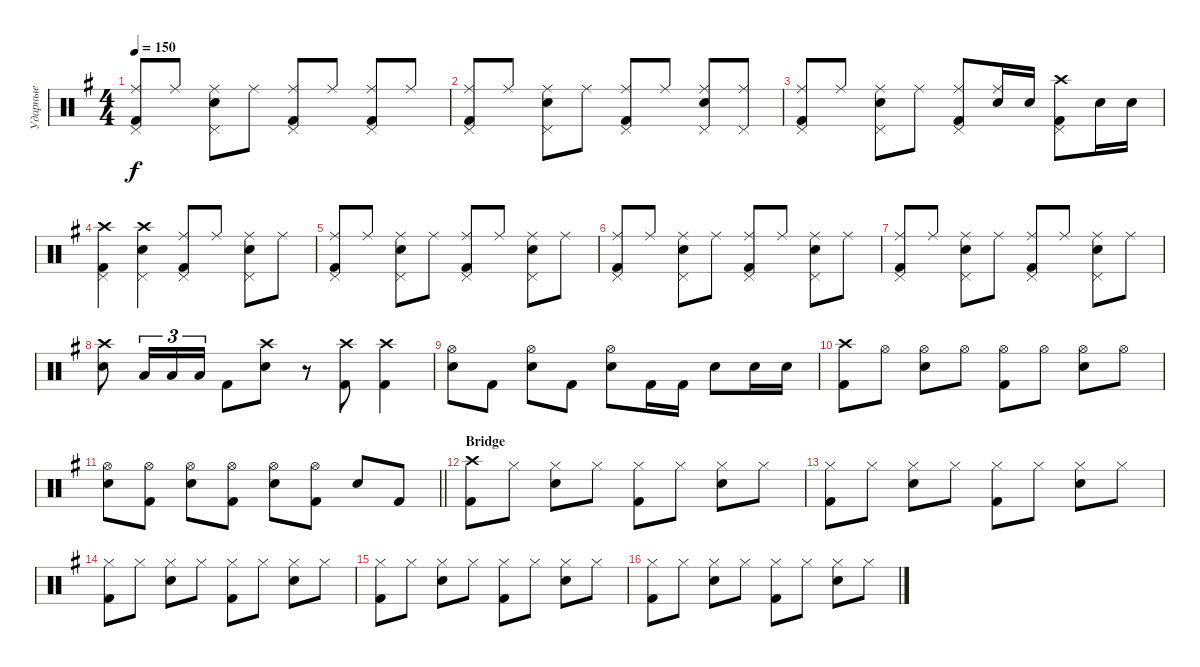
\track ("Ударные" "Ударные") {instrument percussion}
\staff {score}
\articulation defaults
\ts (4 4)
\tempo 150
\clef neutral
\ks eminor
("Ride (middle)" "Kick (hit) 2" "Pedal Hi-Hat (hit)").8{dy f} "Ride (middle)".8 ("Ride (middle)" "Snare (hit) 2" "Pedal Hi-Hat (hit)").8 "Ride (middle)".8 ("Ride (middle)" "Kick (hit) 2" "Pedal Hi-Hat (hit)").8 "Ride (middle)".8 ("Ride (middle)" "Kick (hit) 2" "Pedal Hi-Hat (hit)").8 "Ride (middle)".8 |
("Ride (middle)" "Kick (hit) 2" "Pedal Hi-Hat (hit)").8 "Ride (middle)".8 ("Ride (middle)" "Snare (hit) 2" "Pedal Hi-Hat (hit)").8 "Ride (middle)".8 ("Ride (middle)" "Kick (hit) 2" "Pedal Hi-Hat (hit)").8 "Ride (middle)".8 ("Ride (middle)" "Snare (hit) 2" "Pedal Hi-Hat (hit)").8 ("Ride (middle)" "Pedal Hi-Hat (hit)").8 |
("Ride (middle)" "Kick (hit) 2" "Pedal Hi-Hat (hit)").8 "Ride (middle)".8 ("Ride (middle)" "Snare (hit) 2" "Pedal Hi-Hat (hit)").8 "Ride (middle)".8 ("Ride (middle)" "Kick (hit) 2" "Pedal Hi-Hat (hit)").8 ("Ride (middle)" "Snare (hit) 2").16 "Snare (hit) 2".16 ("Crash high (hit)" "Kick (hit) 2" "Pedal Hi-Hat (hit)").8 "Snare (hit) 2".16 "Snare (hit) 2".16 |
("Kick (hit) 2" "Crash high (hit)" "Pedal Hi-Hat (hit)").4 ("Snare (hit) 2" "Crash high (hit)" "Pedal Hi-Hat (hit)").4 ("Kick (hit) 2" "Ride (middle)" "Pedal Hi-Hat (hit)").8 "Ride (middle)".8 ("Snare (hit) 2" "Ride (middle)" "Pedal Hi-Hat (hit)").8 "Ride (middle)".8 |
("Ride (middle)" "Kick (hit) 2" "Pedal Hi-Hat (hit)").8 "Ride (middle)".8 ("Ride (middle)" "Snare (hit) 2" "Pedal Hi-Hat (hit)").8 "Ride (middle)".8 ("Ride (middle)" "Kick (hit) 2" "Pedal Hi-Hat (hit)").8 "Ride (middle)".8 ("Ride (middle)" "Snare (hit) 2" "Pedal Hi-Hat (hit)").8 "Ride (middle)".8 |
("Ride (middle)" "Kick (hit) 2" "Pedal Hi-Hat (hit)").8 "Ride (middle)".8 ("Ride (middle)" "Snare (hit) 2" "Pedal Hi-Hat (hit)").8 "Ride (middle)".8 ("Ride (middle)" "Kick (hit) 2" "Pedal Hi-Hat (hit)").8 "Ride (middle)".8 ("Ride (middle)" "Snare (hit) 2" "Pedal Hi-Hat (hit)").8 "Ride (middle)".8 |
("Ride (middle)" "Kick (hit) 2" "Pedal Hi-Hat (hit)").8 "Ride (middle)".8 ("Ride (middle)" "Snare (hit) 2" "Pedal Hi-Hat (hit)").8 "Ride (middle)".8 ("Ride (middle)" "Kick (hit) 2" "Pedal Hi-Hat (hit)").8 "Ride (middle)".8 ("Ride (middle)" "Snare (hit) 2" "Pedal Hi-Hat (hit)").8 "Ride (middle)".8 |
("Snare (hit) 2" "Crash high (hit)").8 "Low Tom (hit)".16{tu (3 2)} "Low Tom (hit)".16{tu (3 2)} "Low Tom (hit)".16{tu (3 2)} "Kick (hit) 2".8 ("Snare (hit) 2" "Crash high (hit)").8 r.8 ("Kick (hit) 2" "Crash high (hit)").8 ("Kick (hit) 2" "Crash high (hit)").4 |
("Snare (hit) 2" "Hi-Hat (open)").8 "Kick (hit) 2".8 ("Snare (hit) 2" "Hi-Hat (open)").8 "Kick (hit) 2".8 ("Snare (hit) 2" "Hi-Hat (open)").8 "Kick (hit) 2".16 "Kick (hit) 2".16 "Snare (hit) 2".8 "Snare (hit) 2".16 "Snare (hit) 2".16 |
("Crash high (hit)" "Kick (hit) 2").8 "Hi-Hat (open)".8 ("Hi-Hat (open)" "Snare (hit) 2").8 "Hi-Hat (open)".8 ("Hi-Hat (open)" "Kick (hit) 2").8 "Hi-Hat (open)".8 ("Hi-Hat (open)" "Snare (hit) 2").8 "Hi-Hat (open)".8 |
\barLineRight lightlight
("Snare (hit) 2" "Hi-Hat (open)").8 ("Kick (hit) 2" "Hi-Hat (open)").8 ("Snare (hit) 2" "Hi-Hat (open)").8 ("Kick (hit) 2" "Hi-Hat (open)").8 ("Snare (hit) 2" "Hi-Hat (open)").8 ("Kick (hit) 2" "Hi-Hat (open)").8 "Snare (hit) 2".8 "Kick (hit) 2".8 |
\section ("" "Bridge")
("Crash high (hit)" "Kick (hit) 2").8 "Hi-Hat (closed)".8 ("Hi-Hat (closed)" "Snare (hit) 2").8 "Hi-Hat (closed)".8 ("Hi-Hat (closed)" "Kick (hit) 2").8 "Hi-Hat (closed)".8 ("Hi-Hat (closed)" "Snare (hit) 2").8 "Hi-Hat (closed)".8 |
("Hi-Hat (closed)" "Kick (hit) 2").8 "Hi-Hat (closed)".8 ("Hi-Hat (closed)" "Snare (hit) 2").8 "Hi-Hat (closed)".8 ("Hi-Hat (closed)" "Kick (hit) 2").8 "Hi-Hat (closed)".8 ("Hi-Hat (closed)" "Snare (hit) 2").8 "Hi-Hat (closed)".8 |
("Hi-Hat (closed)" "Kick (hit) 2").8 "Hi-Hat (closed)".8 ("Hi-Hat (closed)" "Snare (hit) 2").8 "Hi-Hat (closed)".8 ("Hi-Hat (closed)" "Kick (hit) 2").8 "Hi-Hat (closed)".8 ("Hi-Hat (closed)" "Snare (hit) 2").8 "Hi-Hat (closed)".8 |
("Hi-Hat (closed)" "Kick (hit) 2").8 "Hi-Hat (closed)".8 ("Hi-Hat (closed)" "Snare (hit) 2").8 "Hi-Hat (closed)".8 ("Hi-Hat (closed)" "Kick (hit) 2").8 "Hi-Hat (closed)".8 ("Hi-Hat (closed)" "Snare (hit) 2").8 "Hi-Hat (closed)".8 |
("Hi-Hat (closed)" "Kick (hit) 2").8 "Hi-Hat (closed)".8 ("Hi-Hat (closed)" "Snare (hit) 2").8 "Hi-Hat (closed)".8 ("Hi-Hat (closed)" "Kick (hit) 2").8 "Hi-Hat (closed)".8 ("Hi-Hat (closed)" "Snare (hit) 2").8 "Hi-Hat (closed)".8
